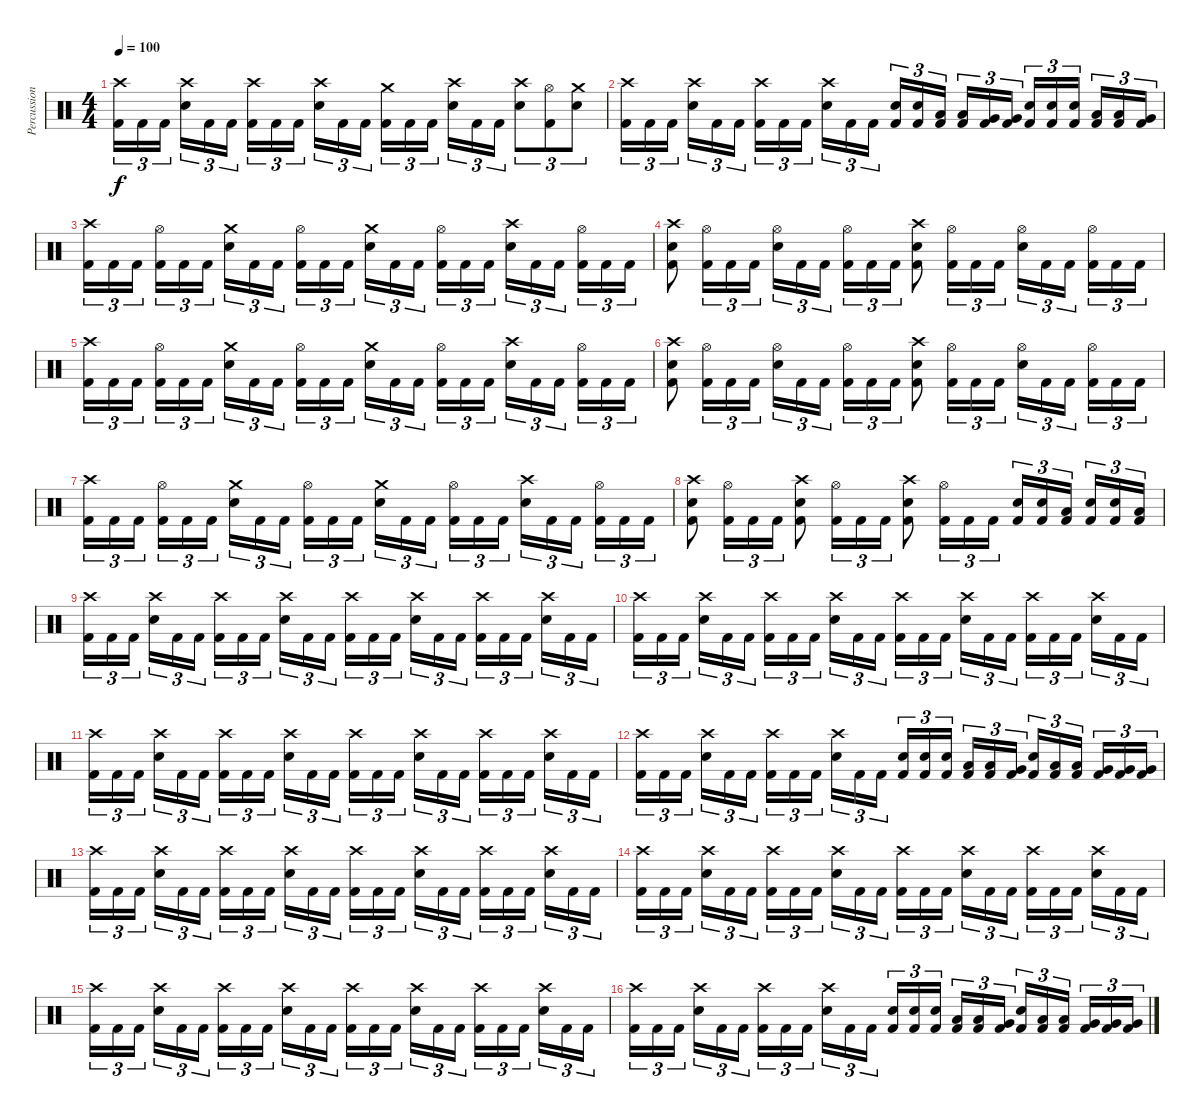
\track ("Percussion" "Percussion") {instrument percussion}
\staff {score}
\articulation defaults
\ts (4 4)
\tempo 100
\clef neutral
\ks c
("Crash high (hit)" "Kick (hit) 2").16{tu (3 2) dy f} "Kick (hit) 2".16{tu (3 2)} "Kick (hit) 2".16{tu (3 2)} ("Crash high (hit)" "Electric Snare (hit)").16{tu (3 2)} "Kick (hit) 2".16{tu (3 2)} "Kick (hit) 2".16{tu (3 2)} ("Crash high (hit)" "Kick (hit) 2").16{tu (3 2)} "Kick (hit) 2".16{tu (3 2)} "Kick (hit) 2".16{tu (3 2)} ("Crash high (hit)" "Electric Snare (hit)").16{tu (3 2)} "Kick (hit) 2".16{tu (3 2)} "Kick (hit) 2".16{tu (3 2)} ("Crash medium (hit)" "Kick (hit) 2").16{tu (3 2)} "Kick (hit) 2".16{tu (3 2)} "Kick (hit) 2".16{tu (3 2)} ("Crash high (hit)" "Electric Snare (hit)").16{tu (3 2)} "Kick (hit) 2".16{tu (3 2)} "Kick (hit) 2".16{tu (3 2)} ("Crash high (hit)" "Electric Snare (hit)").8{tu (3 2)} ("Hi-Hat (open)" "Kick (hit) 2").8{tu (3 2)} ("Crash medium (hit)" "Electric Snare (hit)").8{tu (3 2)} |
("Crash high (hit)" "Kick (hit) 2").16{tu (3 2)} "Kick (hit) 2".16{tu (3 2)} "Kick (hit) 2".16{tu (3 2)} ("Crash high (hit)" "Electric Snare (hit)").16{tu (3 2)} "Kick (hit) 2".16{tu (3 2)} "Kick (hit) 2".16{tu (3 2)} ("Crash high (hit)" "Kick (hit) 2").16{tu (3 2)} "Kick (hit) 2".16{tu (3 2)} "Kick (hit) 2".16{tu (3 2)} ("Crash high (hit)" "Electric Snare (hit)").16{tu (3 2)} "Kick (hit) 2".16{tu (3 2)} "Kick (hit) 2".16{tu (3 2)} ("Electric Snare (hit)" "Kick (hit) 2").16{tu (3 2)} ("Electric Snare (hit)" "Kick (hit) 2").16{tu (3 2)} ("Low Tom (hit)" "Kick (hit) 2").16{tu (3 2)} ("Low Tom (hit)" "Kick (hit) 2").16{tu (3 2)} ("Very Low Tom (hit)" "Kick (hit) 2").16{tu (3 2)} ("Very Low Tom (hit)" "Kick (hit) 2").16{tu (3 2)} ("Electric Snare (hit)" "Kick (hit) 2").16{tu (3 2)} ("Electric Snare (hit)" "Kick (hit) 2").16{tu (3 2)} ("Electric Snare (hit)" "Kick (hit) 2").16{tu (3 2)} ("Low Tom (hit)" "Kick (hit) 2").16{tu (3 2)} ("Low Tom (hit)" "Kick (hit) 2").16{tu (3 2)} ("Very Low Tom (hit)" "Kick (hit) 2").16{tu (3 2)} |
("Crash high (hit)" "Kick (hit) 2").16{tu (3 2)} "Kick (hit) 2".16{tu (3 2)} "Kick (hit) 2".16{tu (3 2)} ("Hi-Hat (open)" "Kick (hit) 2").16{tu (3 2)} "Kick (hit) 2".16{tu (3 2)} "Kick (hit) 2".16{tu (3 2)} ("Crash medium (hit)" "Electric Snare (hit)").16{tu (3 2)} "Kick (hit) 2".16{tu (3 2)} "Kick (hit) 2".16{tu (3 2)} ("Hi-Hat (open)" "Kick (hit) 2").16{tu (3 2)} "Kick (hit) 2".16{tu (3 2)} "Kick (hit) 2".16{tu (3 2)} ("Crash medium (hit)" "Electric Snare (hit)").16{tu (3 2)} "Kick (hit) 2".16{tu (3 2)} "Kick (hit) 2".16{tu (3 2)} ("Hi-Hat (open)" "Kick (hit) 2").16{tu (3 2)} "Kick (hit) 2".16{tu (3 2)} "Kick (hit) 2".16{tu (3 2)} ("Crash high (hit)" "Electric Snare (hit)").16{tu (3 2)} "Kick (hit) 2".16{tu (3 2)} "Kick (hit) 2".16{tu (3 2)} ("Hi-Hat (open)" "Kick (hit) 2").16{tu (3 2)} "Kick (hit) 2".16{tu (3 2)} "Kick (hit) 2".16{tu (3 2)} |
("Crash high (hit)" "Electric Snare (hit)" "Kick (hit) 2").8 ("Hi-Hat (open)" "Kick (hit) 2").16{tu (3 2)} "Kick (hit) 2".16{tu (3 2)} "Kick (hit) 2".16{tu (3 2)} ("Hi-Hat (open)" "Electric Snare (hit)").16{tu (3 2)} "Kick (hit) 2".16{tu (3 2)} "Kick (hit) 2".16{tu (3 2)} ("Hi-Hat (open)" "Kick (hit) 2").16{tu (3 2)} "Kick (hit) 2".16{tu (3 2)} "Kick (hit) 2".16{tu (3 2)} ("Crash high (hit)" "Electric Snare (hit)" "Kick (hit) 2").8 ("Hi-Hat (open)" "Kick (hit) 2").16{tu (3 2)} "Kick (hit) 2".16{tu (3 2)} "Kick (hit) 2".16{tu (3 2)} ("Hi-Hat (open)" "Electric Snare (hit)").16{tu (3 2)} "Kick (hit) 2".16{tu (3 2)} "Kick (hit) 2".16{tu (3 2)} ("Hi-Hat (open)" "Kick (hit) 2").16{tu (3 2)} "Kick (hit) 2".16{tu (3 2)} "Kick (hit) 2".16{tu (3 2)} |
("Crash high (hit)" "Kick (hit) 2").16{tu (3 2)} "Kick (hit) 2".16{tu (3 2)} "Kick (hit) 2".16{tu (3 2)} ("Hi-Hat (open)" "Kick (hit) 2").16{tu (3 2)} "Kick (hit) 2".16{tu (3 2)} "Kick (hit) 2".16{tu (3 2)} ("Crash medium (hit)" "Electric Snare (hit)").16{tu (3 2)} "Kick (hit) 2".16{tu (3 2)} "Kick (hit) 2".16{tu (3 2)} ("Hi-Hat (open)" "Kick (hit) 2").16{tu (3 2)} "Kick (hit) 2".16{tu (3 2)} "Kick (hit) 2".16{tu (3 2)} ("Crash medium (hit)" "Electric Snare (hit)").16{tu (3 2)} "Kick (hit) 2".16{tu (3 2)} "Kick (hit) 2".16{tu (3 2)} ("Hi-Hat (open)" "Kick (hit) 2").16{tu (3 2)} "Kick (hit) 2".16{tu (3 2)} "Kick (hit) 2".16{tu (3 2)} ("Crash high (hit)" "Electric Snare (hit)").16{tu (3 2)} "Kick (hit) 2".16{tu (3 2)} "Kick (hit) 2".16{tu (3 2)} ("Hi-Hat (open)" "Kick (hit) 2").16{tu (3 2)} "Kick (hit) 2".16{tu (3 2)} "Kick (hit) 2".16{tu (3 2)} |
("Crash high (hit)" "Electric Snare (hit)" "Kick (hit) 2").8 ("Hi-Hat (open)" "Kick (hit) 2").16{tu (3 2)} "Kick (hit) 2".16{tu (3 2)} "Kick (hit) 2".16{tu (3 2)} ("Hi-Hat (open)" "Electric Snare (hit)").16{tu (3 2)} "Kick (hit) 2".16{tu (3 2)} "Kick (hit) 2".16{tu (3 2)} ("Hi-Hat (open)" "Kick (hit) 2").16{tu (3 2)} "Kick (hit) 2".16{tu (3 2)} "Kick (hit) 2".16{tu (3 2)} ("Crash high (hit)" "Electric Snare (hit)" "Kick (hit) 2").8 ("Hi-Hat (open)" "Kick (hit) 2").16{tu (3 2)} "Kick (hit) 2".16{tu (3 2)} "Kick (hit) 2".16{tu (3 2)} ("Hi-Hat (open)" "Electric Snare (hit)").16{tu (3 2)} "Kick (hit) 2".16{tu (3 2)} "Kick (hit) 2".16{tu (3 2)} ("Hi-Hat (open)" "Kick (hit) 2").16{tu (3 2)} "Kick (hit) 2".16{tu (3 2)} "Kick (hit) 2".16{tu (3 2)} |
("Crash high (hit)" "Kick (hit) 2").16{tu (3 2)} "Kick (hit) 2".16{tu (3 2)} "Kick (hit) 2".16{tu (3 2)} ("Hi-Hat (open)" "Kick (hit) 2").16{tu (3 2)} "Kick (hit) 2".16{tu (3 2)} "Kick (hit) 2".16{tu (3 2)} ("Crash medium (hit)" "Electric Snare (hit)").16{tu (3 2)} "Kick (hit) 2".16{tu (3 2)} "Kick (hit) 2".16{tu (3 2)} ("Hi-Hat (open)" "Kick (hit) 2").16{tu (3 2)} "Kick (hit) 2".16{tu (3 2)} "Kick (hit) 2".16{tu (3 2)} ("Crash medium (hit)" "Electric Snare (hit)").16{tu (3 2)} "Kick (hit) 2".16{tu (3 2)} "Kick (hit) 2".16{tu (3 2)} ("Hi-Hat (open)" "Kick (hit) 2").16{tu (3 2)} "Kick (hit) 2".16{tu (3 2)} "Kick (hit) 2".16{tu (3 2)} ("Crash high (hit)" "Electric Snare (hit)").16{tu (3 2)} "Kick (hit) 2".16{tu (3 2)} "Kick (hit) 2".16{tu (3 2)} ("Hi-Hat (open)" "Kick (hit) 2").16{tu (3 2)} "Kick (hit) 2".16{tu (3 2)} "Kick (hit) 2".16{tu (3 2)} |
("Crash high (hit)" "Electric Snare (hit)" "Kick (hit) 2").8 ("Hi-Hat (open)" "Kick (hit) 2").16{tu (3 2)} "Kick (hit) 2".16{tu (3 2)} "Kick (hit) 2".16{tu (3 2)} ("Crash high (hit)" "Electric Snare (hit)" "Kick (hit) 2").8 ("Hi-Hat (open)" "Kick (hit) 2").16{tu (3 2)} "Kick (hit) 2".16{tu (3 2)} "Kick (hit) 2".16{tu (3 2)} ("Crash high (hit)" "Electric Snare (hit)" "Kick (hit) 2").8 ("Hi-Hat (open)" "Kick (hit) 2").16{tu (3 2)} "Kick (hit) 2".16{tu (3 2)} "Kick (hit) 2".16{tu (3 2)} ("Electric Snare (hit)" "Kick (hit) 2").16{tu (3 2)} ("Electric Snare (hit)" "Kick (hit) 2").16{tu (3 2)} ("Low Tom (hit)" "Kick (hit) 2").16{tu (3 2)} ("Electric Snare (hit)" "Kick (hit) 2").16{tu (3 2)} ("Electric Snare (hit)" "Kick (hit) 2").16{tu (3 2)} ("Low Tom (hit)" "Kick (hit) 2").16{tu (3 2)} |
("Crash high (hit)" "Kick (hit) 2").16{tu (3 2)} "Kick (hit) 2".16{tu (3 2)} "Kick (hit) 2".16{tu (3 2)} ("Crash high (hit)" "Electric Snare (hit)").16{tu (3 2)} "Kick (hit) 2".16{tu (3 2)} "Kick (hit) 2".16{tu (3 2)} ("Crash high (hit)" "Kick (hit) 2").16{tu (3 2)} "Kick (hit) 2".16{tu (3 2)} "Kick (hit) 2".16{tu (3 2)} ("Crash high (hit)" "Electric Snare (hit)").16{tu (3 2)} "Kick (hit) 2".16{tu (3 2)} "Kick (hit) 2".16{tu (3 2)} ("Crash high (hit)" "Kick (hit) 2").16{tu (3 2)} "Kick (hit) 2".16{tu (3 2)} "Kick (hit) 2".16{tu (3 2)} ("Crash high (hit)" "Electric Snare (hit)").16{tu (3 2)} "Kick (hit) 2".16{tu (3 2)} "Kick (hit) 2".16{tu (3 2)} ("Crash high (hit)" "Kick (hit) 2").16{tu (3 2)} "Kick (hit) 2".16{tu (3 2)} "Kick (hit) 2".16{tu (3 2)} ("Crash high (hit)" "Electric Snare (hit)").16{tu (3 2)} "Kick (hit) 2".16{tu (3 2)} "Kick (hit) 2".16{tu (3 2)} |
("Crash high (hit)" "Kick (hit) 2").16{tu (3 2)} "Kick (hit) 2".16{tu (3 2)} "Kick (hit) 2".16{tu (3 2)} ("Crash high (hit)" "Electric Snare (hit)").16{tu (3 2)} "Kick (hit) 2".16{tu (3 2)} "Kick (hit) 2".16{tu (3 2)} ("Crash high (hit)" "Kick (hit) 2").16{tu (3 2)} "Kick (hit) 2".16{tu (3 2)} "Kick (hit) 2".16{tu (3 2)} ("Crash high (hit)" "Electric Snare (hit)").16{tu (3 2)} "Kick (hit) 2".16{tu (3 2)} "Kick (hit) 2".16{tu (3 2)} ("Crash high (hit)" "Kick (hit) 2").16{tu (3 2)} "Kick (hit) 2".16{tu (3 2)} "Kick (hit) 2".16{tu (3 2)} ("Crash high (hit)" "Electric Snare (hit)").16{tu (3 2)} "Kick (hit) 2".16{tu (3 2)} "Kick (hit) 2".16{tu (3 2)} ("Crash high (hit)" "Kick (hit) 2").16{tu (3 2)} "Kick (hit) 2".16{tu (3 2)} "Kick (hit) 2".16{tu (3 2)} ("Crash high (hit)" "Electric Snare (hit)").16{tu (3 2)} "Kick (hit) 2".16{tu (3 2)} "Kick (hit) 2".16{tu (3 2)} |
("Crash high (hit)" "Kick (hit) 2").16{tu (3 2)} "Kick (hit) 2".16{tu (3 2)} "Kick (hit) 2".16{tu (3 2)} ("Crash high (hit)" "Electric Snare (hit)").16{tu (3 2)} "Kick (hit) 2".16{tu (3 2)} "Kick (hit) 2".16{tu (3 2)} ("Crash high (hit)" "Kick (hit) 2").16{tu (3 2)} "Kick (hit) 2".16{tu (3 2)} "Kick (hit) 2".16{tu (3 2)} ("Crash high (hit)" "Electric Snare (hit)").16{tu (3 2)} "Kick (hit) 2".16{tu (3 2)} "Kick (hit) 2".16{tu (3 2)} ("Crash high (hit)" "Kick (hit) 2").16{tu (3 2)} "Kick (hit) 2".16{tu (3 2)} "Kick (hit) 2".16{tu (3 2)} ("Crash high (hit)" "Electric Snare (hit)").16{tu (3 2)} "Kick (hit) 2".16{tu (3 2)} "Kick (hit) 2".16{tu (3 2)} ("Crash high (hit)" "Kick (hit) 2").16{tu (3 2)} "Kick (hit) 2".16{tu (3 2)} "Kick (hit) 2".16{tu (3 2)} ("Crash high (hit)" "Electric Snare (hit)").16{tu (3 2)} "Kick (hit) 2".16{tu (3 2)} "Kick (hit) 2".16{tu (3 2)} |
("Crash high (hit)" "Kick (hit) 2").16{tu (3 2)} "Kick (hit) 2".16{tu (3 2)} "Kick (hit) 2".16{tu (3 2)} ("Crash high (hit)" "Electric Snare (hit)").16{tu (3 2)} "Kick (hit) 2".16{tu (3 2)} "Kick (hit) 2".16{tu (3 2)} ("Crash high (hit)" "Kick (hit) 2").16{tu (3 2)} "Kick (hit) 2".16{tu (3 2)} "Kick (hit) 2".16{tu (3 2)} ("Crash high (hit)" "Electric Snare (hit)").16{tu (3 2)} "Kick (hit) 2".16{tu (3 2)} "Kick (hit) 2".16{tu (3 2)} ("Electric Snare (hit)" "Kick (hit) 2").16{tu (3 2)} ("Electric Snare (hit)" "Kick (hit) 2").16{tu (3 2)} ("Electric Snare (hit)" "Kick (hit) 2").16{tu (3 2)} ("Low Tom (hit)" "Kick (hit) 2").16{tu (3 2)} ("Low Tom (hit)" "Kick (hit) 2").16{tu (3 2)} ("Very Low Tom (hit)" "Kick (hit) 2").16{tu (3 2)} ("Electric Snare (hit)" "Kick (hit) 2").16{tu (3 2)} ("Low Tom (hit)" "Kick (hit) 2").16{tu (3 2)} ("Low Tom (hit)" "Kick (hit) 2").16{tu (3 2)} ("Very Low Tom (hit)" "Kick (hit) 2").16{tu (3 2)} ("Very Low Tom (hit)" "Kick (hit) 2").16{tu (3 2)} ("Very Low Tom (hit)" "Kick (hit) 2").16{tu (3 2)} |
("Crash high (hit)" "Kick (hit) 2").16{tu (3 2)} "Kick (hit) 2".16{tu (3 2)} "Kick (hit) 2".16{tu (3 2)} ("Crash high (hit)" "Electric Snare (hit)").16{tu (3 2)} "Kick (hit) 2".16{tu (3 2)} "Kick (hit) 2".16{tu (3 2)} ("Crash high (hit)" "Kick (hit) 2").16{tu (3 2)} "Kick (hit) 2".16{tu (3 2)} "Kick (hit) 2".16{tu (3 2)} ("Crash high (hit)" "Electric Snare (hit)").16{tu (3 2)} "Kick (hit) 2".16{tu (3 2)} "Kick (hit) 2".16{tu (3 2)} ("Crash high (hit)" "Kick (hit) 2").16{tu (3 2)} "Kick (hit) 2".16{tu (3 2)} "Kick (hit) 2".16{tu (3 2)} ("Crash high (hit)" "Electric Snare (hit)").16{tu (3 2)} "Kick (hit) 2".16{tu (3 2)} "Kick (hit) 2".16{tu (3 2)} ("Crash high (hit)" "Kick (hit) 2").16{tu (3 2)} "Kick (hit) 2".16{tu (3 2)} "Kick (hit) 2".16{tu (3 2)} ("Crash high (hit)" "Electric Snare (hit)").16{tu (3 2)} "Kick (hit) 2".16{tu (3 2)} "Kick (hit) 2".16{tu (3 2)} |
("Crash high (hit)" "Kick (hit) 2").16{tu (3 2)} "Kick (hit) 2".16{tu (3 2)} "Kick (hit) 2".16{tu (3 2)} ("Crash high (hit)" "Electric Snare (hit)").16{tu (3 2)} "Kick (hit) 2".16{tu (3 2)} "Kick (hit) 2".16{tu (3 2)} ("Crash high (hit)" "Kick (hit) 2").16{tu (3 2)} "Kick (hit) 2".16{tu (3 2)} "Kick (hit) 2".16{tu (3 2)} ("Crash high (hit)" "Electric Snare (hit)").16{tu (3 2)} "Kick (hit) 2".16{tu (3 2)} "Kick (hit) 2".16{tu (3 2)} ("Crash high (hit)" "Kick (hit) 2").16{tu (3 2)} "Kick (hit) 2".16{tu (3 2)} "Kick (hit) 2".16{tu (3 2)} ("Crash high (hit)" "Electric Snare (hit)").16{tu (3 2)} "Kick (hit) 2".16{tu (3 2)} "Kick (hit) 2".16{tu (3 2)} ("Crash high (hit)" "Kick (hit) 2").16{tu (3 2)} "Kick (hit) 2".16{tu (3 2)} "Kick (hit) 2".16{tu (3 2)} ("Crash high (hit)" "Electric Snare (hit)").16{tu (3 2)} "Kick (hit) 2".16{tu (3 2)} "Kick (hit) 2".16{tu (3 2)} |
("Crash high (hit)" "Kick (hit) 2").16{tu (3 2)} "Kick (hit) 2".16{tu (3 2)} "Kick (hit) 2".16{tu (3 2)} ("Crash high (hit)" "Electric Snare (hit)").16{tu (3 2)} "Kick (hit) 2".16{tu (3 2)} "Kick (hit) 2".16{tu (3 2)} ("Crash high (hit)" "Kick (hit) 2").16{tu (3 2)} "Kick (hit) 2".16{tu (3 2)} "Kick (hit) 2".16{tu (3 2)} ("Crash high (hit)" "Electric Snare (hit)").16{tu (3 2)} "Kick (hit) 2".16{tu (3 2)} "Kick (hit) 2".16{tu (3 2)} ("Crash high (hit)" "Kick (hit) 2").16{tu (3 2)} "Kick (hit) 2".16{tu (3 2)} "Kick (hit) 2".16{tu (3 2)} ("Crash high (hit)" "Electric Snare (hit)").16{tu (3 2)} "Kick (hit) 2".16{tu (3 2)} "Kick (hit) 2".16{tu (3 2)} ("Crash high (hit)" "Kick (hit) 2").16{tu (3 2)} "Kick (hit) 2".16{tu (3 2)} "Kick (hit) 2".16{tu (3 2)} ("Crash high (hit)" "Electric Snare (hit)").16{tu (3 2)} "Kick (hit) 2".16{tu (3 2)} "Kick (hit) 2".16{tu (3 2)} |
("Crash high (hit)" "Kick (hit) 2").16{tu (3 2)} "Kick (hit) 2".16{tu (3 2)} "Kick (hit) 2".16{tu (3 2)} ("Crash high (hit)" "Electric Snare (hit)").16{tu (3 2)} "Kick (hit) 2".16{tu (3 2)} "Kick (hit) 2".16{tu (3 2)} ("Crash high (hit)" "Kick (hit) 2").16{tu (3 2)} "Kick (hit) 2".16{tu (3 2)} "Kick (hit) 2".16{tu (3 2)} ("Crash high (hit)" "Electric Snare (hit)").16{tu (3 2)} "Kick (hit) 2".16{tu (3 2)} "Kick (hit) 2".16{tu (3 2)} ("Electric Snare (hit)" "Kick (hit) 2").16{tu (3 2)} ("Electric Snare (hit)" "Kick (hit) 2").16{tu (3 2)} ("Electric Snare (hit)" "Kick (hit) 2").16{tu (3 2)} ("Low Tom (hit)" "Kick (hit) 2").16{tu (3 2)} ("Low Tom (hit)" "Kick (hit) 2").16{tu (3 2)} ("Very Low Tom (hit)" "Kick (hit) 2").16{tu (3 2)} ("Electric Snare (hit)" "Kick (hit) 2").16{tu (3 2)} ("Low Tom (hit)" "Kick (hit) 2").16{tu (3 2)} ("Low Tom (hit)" "Kick (hit) 2").16{tu (3 2)} ("Very Low Tom (hit)" "Kick (hit) 2").16{tu (3 2)} ("Very Low Tom (hit)" "Kick (hit) 2").16{tu (3 2)} ("Very Low Tom (hit)" "Kick (hit) 2").16{tu (3 2)}
